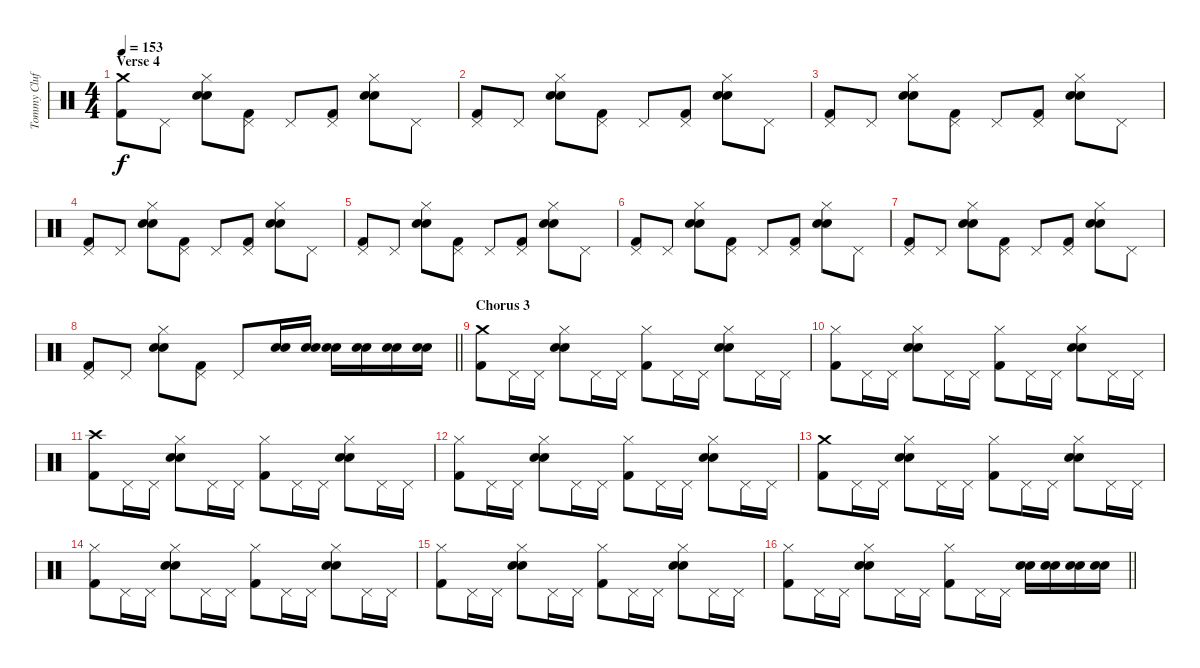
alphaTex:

\track ("Tommy Clufetos" "Tommy Cluf") {instrument percussion}
\staff {score}
\articulation defaults
\ts (4 4)
\section ("" "Verse 4")
\tempo 153
\clef neutral
\ks c
("Crash medium (hit)" "Kick (hit) 2").8{dy f} "Pedal Hi-Hat (hit)".8 ("Hi-Hat (closed)" "Electric Snare (hit)" "Snare (hit) 2").8 ("Pedal Hi-Hat (hit)" "Kick (hit) 2").8 "Pedal Hi-Hat (hit)".8 ("Pedal Hi-Hat (hit)" "Kick (hit) 2").8 ("Hi-Hat (closed)" "Electric Snare (hit)" "Snare (hit) 2").8 "Pedal Hi-Hat (hit)".8 |
("Pedal Hi-Hat (hit)" "Kick (hit) 2").8 "Pedal Hi-Hat (hit)".8 ("Hi-Hat (closed)" "Electric Snare (hit)" "Snare (hit) 2").8 ("Pedal Hi-Hat (hit)" "Kick (hit) 2").8 "Pedal Hi-Hat (hit)".8 ("Pedal Hi-Hat (hit)" "Kick (hit) 2").8 ("Hi-Hat (closed)" "Electric Snare (hit)" "Snare (hit) 2").8 "Pedal Hi-Hat (hit)".8 |
("Pedal Hi-Hat (hit)" "Kick (hit) 2").8 "Pedal Hi-Hat (hit)".8 ("Hi-Hat (closed)" "Electric Snare (hit)" "Snare (hit) 2").8 ("Pedal Hi-Hat (hit)" "Kick (hit) 2").8 "Pedal Hi-Hat (hit)".8 ("Pedal Hi-Hat (hit)" "Kick (hit) 2").8 ("Hi-Hat (closed)" "Electric Snare (hit)" "Snare (hit) 2").8 "Pedal Hi-Hat (hit)".8 |
("Pedal Hi-Hat (hit)" "Kick (hit) 2").8 "Pedal Hi-Hat (hit)".8 ("Hi-Hat (closed)" "Electric Snare (hit)" "Snare (hit) 2").8 ("Pedal Hi-Hat (hit)" "Kick (hit) 2").8 "Pedal Hi-Hat (hit)".8 ("Pedal Hi-Hat (hit)" "Kick (hit) 2").8 ("Hi-Hat (closed)" "Electric Snare (hit)" "Snare (hit) 2").8 "Pedal Hi-Hat (hit)".8 |
("Pedal Hi-Hat (hit)" "Kick (hit) 2").8 "Pedal Hi-Hat (hit)".8 ("Hi-Hat (closed)" "Electric Snare (hit)" "Snare (hit) 2").8 ("Pedal Hi-Hat (hit)" "Kick (hit) 2").8 "Pedal Hi-Hat (hit)".8 ("Pedal Hi-Hat (hit)" "Kick (hit) 2").8 ("Hi-Hat (closed)" "Electric Snare (hit)" "Snare (hit) 2").8 "Pedal Hi-Hat (hit)".8 |
("Pedal Hi-Hat (hit)" "Kick (hit) 2").8 "Pedal Hi-Hat (hit)".8 ("Hi-Hat (closed)" "Electric Snare (hit)" "Snare (hit) 2").8 ("Pedal Hi-Hat (hit)" "Kick (hit) 2").8 "Pedal Hi-Hat (hit)".8 ("Pedal Hi-Hat (hit)" "Kick (hit) 2").8 ("Hi-Hat (closed)" "Electric Snare (hit)" "Snare (hit) 2").8 "Pedal Hi-Hat (hit)".8 |
("Pedal Hi-Hat (hit)" "Kick (hit) 2").8 "Pedal Hi-Hat (hit)".8 ("Hi-Hat (closed)" "Electric Snare (hit)" "Snare (hit) 2").8 ("Pedal Hi-Hat (hit)" "Kick (hit) 2").8 "Pedal Hi-Hat (hit)".8 ("Pedal Hi-Hat (hit)" "Kick (hit) 2").8 ("Hi-Hat (closed)" "Electric Snare (hit)" "Snare (hit) 2").8 "Pedal Hi-Hat (hit)".8 |
\barLineRight lightlight
("Pedal Hi-Hat (hit)" "Kick (hit) 2").8 "Pedal Hi-Hat (hit)".8 ("Hi-Hat (closed)" "Electric Snare (hit)" "Snare (hit) 2").8 ("Pedal Hi-Hat (hit)" "Kick (hit) 2").8 "Pedal Hi-Hat (hit)".8 ("Electric Snare (hit)" "Snare (hit) 2").16 ("Electric Snare (hit)" "Snare (hit) 2").16 ("Electric Snare (hit)" "Snare (hit) 2").16 ("Electric Snare (hit)" "Snare (hit) 2").16 ("Electric Snare (hit)" "Snare (hit) 2").16 ("Electric Snare (hit)" "Snare (hit) 2").16 |
\section ("" "Chorus 3")
("Crash medium (hit)" "Kick (hit) 2").8 "Pedal Hi-Hat (hit)".16 "Pedal Hi-Hat (hit)".16 ("Hi-Hat (closed)" "Electric Snare (hit)" "Snare (hit) 2").8 "Pedal Hi-Hat (hit)".16 "Pedal Hi-Hat (hit)".16 ("Hi-Hat (closed)" "Kick (hit) 2").8 "Pedal Hi-Hat (hit)".16 "Pedal Hi-Hat (hit)".16 ("Hi-Hat (closed)" "Electric Snare (hit)" "Snare (hit) 2").8 "Pedal Hi-Hat (hit)".16 "Pedal Hi-Hat (hit)".16 |
("Hi-Hat (closed)" "Kick (hit) 2").8 "Pedal Hi-Hat (hit)".16 "Pedal Hi-Hat (hit)".16 ("Hi-Hat (closed)" "Electric Snare (hit)" "Snare (hit) 2").8 "Pedal Hi-Hat (hit)".16 "Pedal Hi-Hat (hit)".16 ("Hi-Hat (closed)" "Kick (hit) 2").8 "Pedal Hi-Hat (hit)".16 "Pedal Hi-Hat (hit)".16 ("Hi-Hat (closed)" "Electric Snare (hit)" "Snare (hit) 2").8 "Pedal Hi-Hat (hit)".16 "Pedal Hi-Hat (hit)".16 |
("Crash high (hit)" "Kick (hit) 2").8 "Pedal Hi-Hat (hit)".16 "Pedal Hi-Hat (hit)".16 ("Hi-Hat (closed)" "Electric Snare (hit)" "Snare (hit) 2").8 "Pedal Hi-Hat (hit)".16 "Pedal Hi-Hat (hit)".16 ("Hi-Hat (closed)" "Kick (hit) 2").8 "Pedal Hi-Hat (hit)".16 "Pedal Hi-Hat (hit)".16 ("Hi-Hat (closed)" "Electric Snare (hit)" "Snare (hit) 2").8 "Pedal Hi-Hat (hit)".16 "Pedal Hi-Hat (hit)".16 |
("Hi-Hat (closed)" "Kick (hit) 2").8 "Pedal Hi-Hat (hit)".16 "Pedal Hi-Hat (hit)".16 ("Hi-Hat (closed)" "Electric Snare (hit)" "Snare (hit) 2").8 "Pedal Hi-Hat (hit)".16 "Pedal Hi-Hat (hit)".16 ("Hi-Hat (closed)" "Kick (hit) 2").8 "Pedal Hi-Hat (hit)".16 "Pedal Hi-Hat (hit)".16 ("Hi-Hat (closed)" "Electric Snare (hit)" "Snare (hit) 2").8 "Pedal Hi-Hat (hit)".16 "Pedal Hi-Hat (hit)".16 |
("Crash medium (hit)" "Kick (hit) 2").8 "Pedal Hi-Hat (hit)".16 "Pedal Hi-Hat (hit)".16 ("Hi-Hat (closed)" "Electric Snare (hit)" "Snare (hit) 2").8 "Pedal Hi-Hat (hit)".16 "Pedal Hi-Hat (hit)".16 ("Hi-Hat (closed)" "Kick (hit) 2").8 "Pedal Hi-Hat (hit)".16 "Pedal Hi-Hat (hit)".16 ("Hi-Hat (closed)" "Electric Snare (hit)" "Snare (hit) 2").8 "Pedal Hi-Hat (hit)".16 "Pedal Hi-Hat (hit)".16 |
("Hi-Hat (closed)" "Kick (hit) 2").8 "Pedal Hi-Hat (hit)".16 "Pedal Hi-Hat (hit)".16 ("Hi-Hat (closed)" "Electric Snare (hit)" "Snare (hit) 2").8 "Pedal Hi-Hat (hit)".16 "Pedal Hi-Hat (hit)".16 ("Hi-Hat (closed)" "Kick (hit) 2").8 "Pedal Hi-Hat (hit)".16 "Pedal Hi-Hat (hit)".16 ("Hi-Hat (closed)" "Electric Snare (hit)" "Snare (hit) 2").8 "Pedal Hi-Hat (hit)".16 "Pedal Hi-Hat (hit)".16 |
("Hi-Hat (closed)" "Kick (hit) 2").8 "Pedal Hi-Hat (hit)".16 "Pedal Hi-Hat (hit)".16 ("Hi-Hat (closed)" "Electric Snare (hit)" "Snare (hit) 2").8 "Pedal Hi-Hat (hit)".16 "Pedal Hi-Hat (hit)".16 ("Hi-Hat (closed)" "Kick (hit) 2").8 "Pedal Hi-Hat (hit)".16 "Pedal Hi-Hat (hit)".16 ("Hi-Hat (closed)" "Electric Snare (hit)" "Snare (hit) 2").8 "Pedal Hi-Hat (hit)".16 "Pedal Hi-Hat (hit)".16 |
\barLineRight lightlight
("Hi-Hat (closed)" "Kick (hit) 2").8 "Pedal Hi-Hat (hit)".16 "Pedal Hi-Hat (hit)".16 ("Hi-Hat (closed)" "Electric Snare (hit)" "Snare (hit) 2").8 "Pedal Hi-Hat (hit)".16 "Pedal Hi-Hat (hit)".16 ("Hi-Hat (closed)" "Kick (hit) 2").8 "Pedal Hi-Hat (hit)".16 "Pedal Hi-Hat (hit)".16 ("Electric Snare (hit)" "Snare (hit) 2").16 ("Electric Snare (hit)" "Snare (hit) 2").16 ("Electric Snare (hit)" "Snare (hit) 2").16 ("Electric Snare (hit)" "Snare (hit) 2").16
